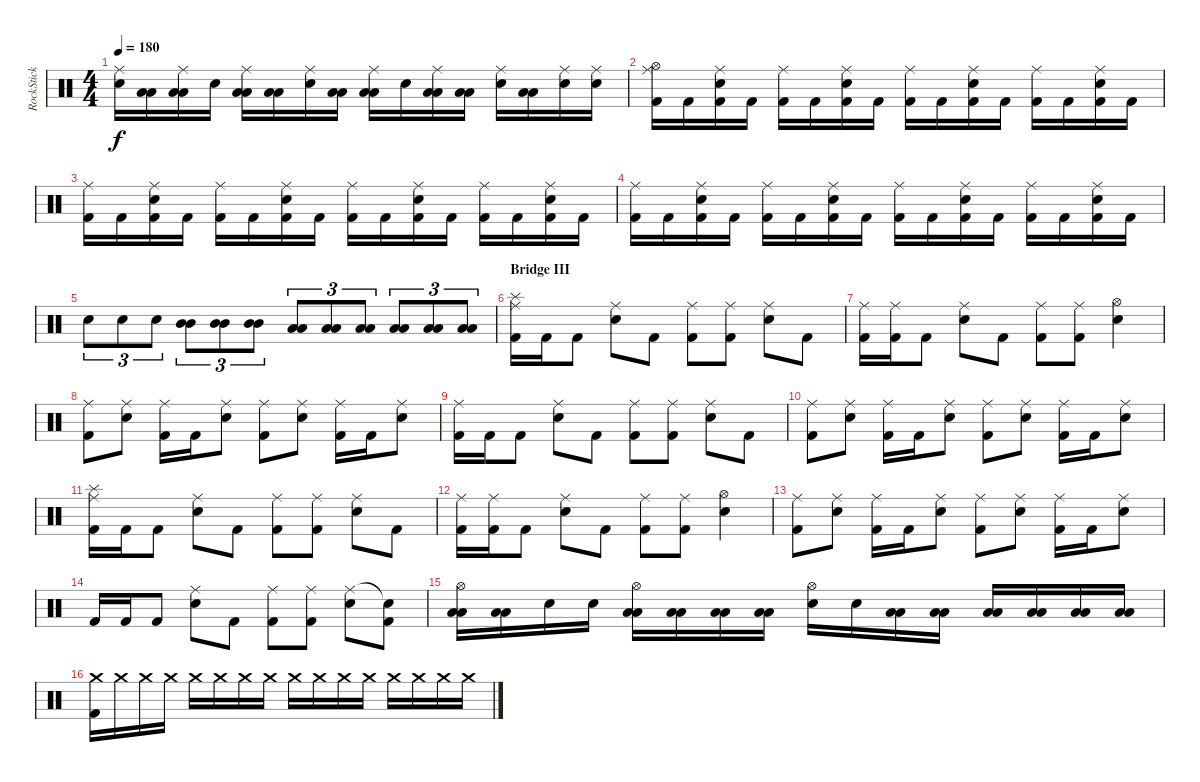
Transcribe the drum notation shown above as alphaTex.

\track ("RockStick" "RockStick") {instrument percussion}
\staff {score}
\articulation defaults
\ts (4 4)
\tempo 180
\clef neutral
\ks c
("Electric Snare (hit)" "Ride (middle)").16{dy f} ("Low Tom (hit)" "Low Tom (hit)").16 ("Low Tom (hit)" "Low Tom (hit)" "Ride (middle)").16 "Electric Snare (hit)".16 ("Low Tom (hit)" "Low Tom (hit)" "Ride (middle)").16 ("Low Tom (hit)" "Low Tom (hit)").16 ("Electric Snare (hit)" "Ride (middle)").16 ("Low Tom (hit)" "Low Tom (hit)").16 ("Low Tom (hit)" "Low Tom (hit)" "Ride (middle)").16 "Electric Snare (hit)".16 ("Low Tom (hit)" "Low Tom (hit)" "Ride (middle)").16 ("Low Tom (hit)" "Low Tom (hit)").16 ("Electric Snare (hit)" "Ride (middle)").16 ("Low Tom (hit)" "Low Tom (hit)").16 ("Electric Snare (hit)" "Ride (middle)").16 ("Electric Snare (hit)" "Ride (middle)").16 |
("Hi-Hat (open)" "Kick (hit) 2" "Ride (middle)").16 "Kick (hit) 2".16 ("Electric Snare (hit)" "Kick (hit) 2" "Ride (middle)").16 "Kick (hit) 2".16 ("Kick (hit) 2" "Ride (middle)").16 "Kick (hit) 2".16 ("Electric Snare (hit)" "Kick (hit) 2" "Ride (middle)").16 "Kick (hit) 2".16 ("Kick (hit) 2" "Ride (middle)").16 "Kick (hit) 2".16 ("Electric Snare (hit)" "Kick (hit) 2" "Ride (middle)").16 "Kick (hit) 2".16 ("Kick (hit) 2" "Ride (middle)").16 "Kick (hit) 2".16 ("Electric Snare (hit)" "Kick (hit) 2" "Ride (middle)").16 "Kick (hit) 2".16 |
("Kick (hit) 2" "Ride (middle)").16 "Kick (hit) 2".16 ("Electric Snare (hit)" "Kick (hit) 2" "Ride (middle)").16 "Kick (hit) 2".16 ("Kick (hit) 2" "Ride (middle)").16 "Kick (hit) 2".16 ("Electric Snare (hit)" "Kick (hit) 2" "Ride (middle)").16 "Kick (hit) 2".16 ("Kick (hit) 2" "Ride (middle)").16 "Kick (hit) 2".16 ("Electric Snare (hit)" "Kick (hit) 2" "Ride (middle)").16 "Kick (hit) 2".16 ("Kick (hit) 2" "Ride (middle)").16 "Kick (hit) 2".16 ("Electric Snare (hit)" "Kick (hit) 2" "Ride (middle)").16 "Kick (hit) 2".16 |
("Kick (hit) 2" "Ride (middle)").16 "Kick (hit) 2".16 ("Electric Snare (hit)" "Kick (hit) 2" "Ride (middle)").16 "Kick (hit) 2".16 ("Kick (hit) 2" "Ride (middle)").16 "Kick (hit) 2".16 ("Electric Snare (hit)" "Kick (hit) 2" "Ride (middle)").16 "Kick (hit) 2".16 ("Kick (hit) 2" "Ride (middle)").16 "Kick (hit) 2".16 ("Electric Snare (hit)" "Kick (hit) 2" "Ride (middle)").16 "Kick (hit) 2".16 ("Kick (hit) 2" "Ride (middle)").16 "Kick (hit) 2".16 ("Electric Snare (hit)" "Kick (hit) 2" "Ride (middle)").16 "Kick (hit) 2".16 |
"Electric Snare (hit)".8{tu (3 2)} "Electric Snare (hit)".8{tu (3 2)} "Electric Snare (hit)".8{tu (3 2)} ("Mid Tom (hit)" "Mid Tom (hit)").8{tu (3 2)} ("Mid Tom (hit)" "Mid Tom (hit)").8{tu (3 2)} ("Mid Tom (hit)" "Mid Tom (hit)").8{tu (3 2)} ("Low Tom (hit)" "Low Tom (hit)").8{tu (3 2)} ("Low Tom (hit)" "Low Tom (hit)").8{tu (3 2)} ("Low Tom (hit)" "Low Tom (hit)").8{tu (3 2)} ("Low Floor Tom (hit)" "Low Floor Tom (hit)").8{tu (3 2)} ("Low Floor Tom (hit)" "Low Floor Tom (hit)").8{tu (3 2)} ("Low Floor Tom (hit)" "Low Floor Tom (hit)").8{tu (3 2)} |
\section ("" "Bridge III")
("Kick (hit) 2" "Ride (middle)" "Splash (hit)").16 "Kick (hit) 2".16 "Kick (hit) 2".8 ("Electric Snare (hit)" "Ride (middle)").8 "Kick (hit) 2".8 ("Kick (hit) 2" "Ride (middle)").8 ("Kick (hit) 2" "Ride (middle)").8 ("Electric Snare (hit)" "Ride (middle)").8 "Kick (hit) 2".8 |
("Kick (hit) 2" "Ride (middle)").16 ("Kick (hit) 2" "Ride (middle)").16 "Kick (hit) 2".8 ("Electric Snare (hit)" "Ride (middle)").8 "Kick (hit) 2".8 ("Kick (hit) 2" "Ride (middle)").8 ("Kick (hit) 2" "Ride (middle)").8 ("Electric Snare (hit)" "Hi-Hat (open)").4 |
("Kick (hit) 2" "Ride (middle)").8 ("Electric Snare (hit)" "Ride (middle)").8 ("Kick (hit) 2" "Ride (middle)").16 "Kick (hit) 2".16 ("Electric Snare (hit)" "Ride (middle)").8 ("Kick (hit) 2" "Ride (middle)").8 ("Electric Snare (hit)" "Ride (middle)").8 ("Kick (hit) 2" "Ride (middle)").16 "Kick (hit) 2".16 ("Electric Snare (hit)" "Ride (middle)").8 |
("Kick (hit) 2" "Ride (middle)").16 "Kick (hit) 2".16 "Kick (hit) 2".8 ("Electric Snare (hit)" "Ride (middle)").8 "Kick (hit) 2".8 ("Kick (hit) 2" "Ride (middle)").8 ("Kick (hit) 2" "Ride (middle)").8 ("Electric Snare (hit)" "Ride (middle)").8 "Kick (hit) 2".8 |
("Kick (hit) 2" "Ride (middle)").8 ("Electric Snare (hit)" "Ride (middle)").8 ("Kick (hit) 2" "Ride (middle)").16 "Kick (hit) 2".16 ("Electric Snare (hit)" "Ride (middle)").8 ("Kick (hit) 2" "Ride (middle)").8 ("Electric Snare (hit)" "Ride (middle)").8 ("Kick (hit) 2" "Ride (middle)").16 "Kick (hit) 2".16 ("Electric Snare (hit)" "Ride (middle)").8 |
("Kick (hit) 2" "Ride (middle)" "Splash (hit)").16 "Kick (hit) 2".16 "Kick (hit) 2".8 ("Electric Snare (hit)" "Ride (middle)").8 "Kick (hit) 2".8 ("Kick (hit) 2" "Ride (middle)").8 ("Kick (hit) 2" "Ride (middle)").8 ("Electric Snare (hit)" "Ride (middle)").8 "Kick (hit) 2".8 |
("Kick (hit) 2" "Ride (middle)").16 ("Kick (hit) 2" "Ride (middle)").16 "Kick (hit) 2".8 ("Electric Snare (hit)" "Ride (middle)").8 "Kick (hit) 2".8 ("Kick (hit) 2" "Ride (middle)").8 ("Kick (hit) 2" "Ride (middle)").8 ("Electric Snare (hit)" "Hi-Hat (open)").4 |
("Kick (hit) 2" "Ride (middle)").8 ("Electric Snare (hit)" "Ride (middle)").8 ("Kick (hit) 2" "Ride (middle)").16 "Kick (hit) 2".16 ("Electric Snare (hit)" "Ride (middle)").8 ("Kick (hit) 2" "Ride (middle)").8 ("Electric Snare (hit)" "Ride (middle)").8 ("Kick (hit) 2" "Ride (middle)").16 "Kick (hit) 2".16 ("Electric Snare (hit)" "Ride (middle)").8 |
"Kick (hit) 2".16 "Kick (hit) 2".16 "Kick (hit) 2".8 ("Electric Snare (hit)" "Ride (middle)").8 "Kick (hit) 2".8 ("Kick (hit) 2" "Ride (middle)").8 ("Kick (hit) 2" "Ride (middle)").8 ("Electric Snare (hit)" "Ride (middle)").8 ("Kick (hit) 2" "Snare (hit)"{t}).8 |
("Low Tom (hit)" "Low Tom (hit)" "Hi-Hat (open)").16 ("Low Tom (hit)" "Low Tom (hit)").16 "Electric Snare (hit)".16 "Electric Snare (hit)".16 ("Low Tom (hit)" "Low Tom (hit)" "Hi-Hat (open)").16 ("Low Tom (hit)" "Low Tom (hit)").16 ("Low Tom (hit)" "Low Tom (hit)").16 ("Low Tom (hit)" "Low Tom (hit)").16 ("Electric Snare (hit)" "Hi-Hat (open)").16 "Electric Snare (hit)".16 ("Low Tom (hit)" "Low Tom (hit)").16 ("Low Tom (hit)" "Low Tom (hit)").16 ("Low Floor Tom (hit)" "Low Floor Tom (hit)").16 ("Low Floor Tom (hit)" "Low Floor Tom (hit)").16 ("Low Floor Tom (hit)" "Low Floor Tom (hit)").16 ("Low Floor Tom (hit)" "Low Floor Tom (hit)").16 |
("Kick (hit) 2" "Crash medium (hit)").16{volume 3} "Crash medium (hit)".16{volume 14} "Crash medium (hit)".16 "Crash medium (hit)".16 "Crash medium (hit)".16 "Crash medium (hit)".16 "Crash medium (hit)".16 "Crash medium (hit)".16 "Crash medium (hit)".16 "Crash medium (hit)".16 "Crash medium (hit)".16 "Crash medium (hit)".16 "Crash medium (hit)".16 "Crash medium (hit)".16 "Crash medium (hit)".16 "Crash medium (hit)".16
